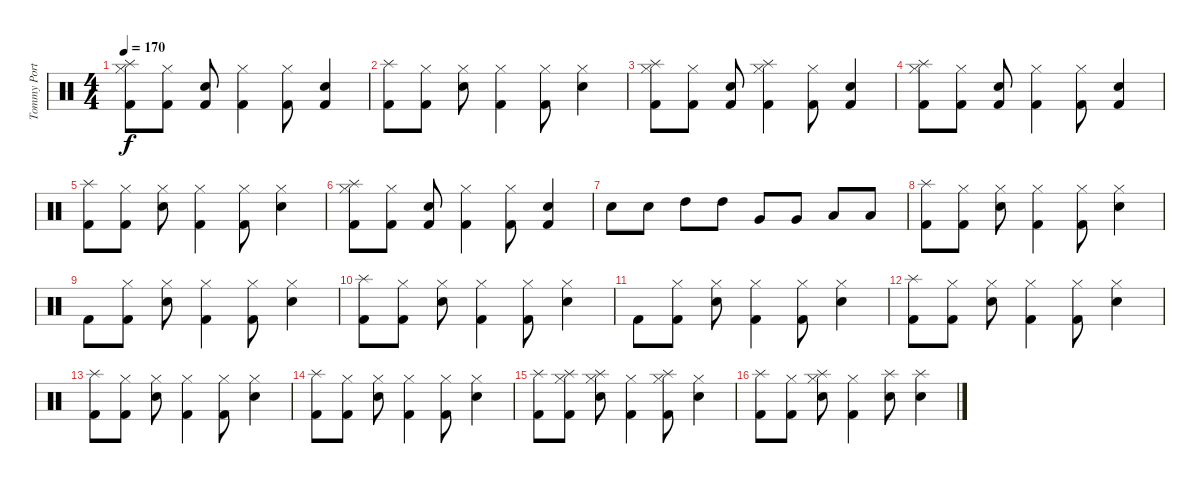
\track ("Tommy Portimo" "Tommy Port") {instrument percussion}
\staff {score}
\articulation defaults
\ts (4 4)
\tempo 170
\clef neutral
\ks c
("Splash (hit)" "Kick (hit) 2" "Hi-Hat (closed)").8{dy f} ("Kick (hit) 2" "Hi-Hat (closed)").8 ("Electric Snare (hit)" "Kick (hit) 2").8 ("Kick (hit) 2" "Hi-Hat (closed)").4 ("Kick (hit) 2" "Hi-Hat (closed)").8 ("Electric Snare (hit)" "Kick (hit) 2").4 |
("Splash (hit)" "Kick (hit) 2").8 ("Kick (hit) 2" "Hi-Hat (closed)").8 ("Electric Snare (hit)" "Hi-Hat (closed)").8 ("Kick (hit) 2" "Hi-Hat (closed)").4 ("Kick (hit) 2" "Hi-Hat (closed)").8 ("Electric Snare (hit)" "Hi-Hat (closed)").4 |
("Splash (hit)" "Kick (hit) 2" "Hi-Hat (closed)").8 ("Kick (hit) 2" "Hi-Hat (closed)").8 ("Electric Snare (hit)" "Kick (hit) 2").8 ("Splash (hit)" "Kick (hit) 2" "Hi-Hat (closed)").4 ("Kick (hit) 2" "Hi-Hat (closed)").8 ("Electric Snare (hit)" "Kick (hit) 2").4 |
("Splash (hit)" "Kick (hit) 2" "Hi-Hat (closed)").8 ("Kick (hit) 2" "Hi-Hat (closed)").8 ("Electric Snare (hit)" "Kick (hit) 2").8 ("Kick (hit) 2" "Hi-Hat (closed)").4 ("Kick (hit) 2" "Hi-Hat (closed)").8 ("Electric Snare (hit)" "Kick (hit) 2").4 |
("Splash (hit)" "Kick (hit) 2").8 ("Kick (hit) 2" "Hi-Hat (closed)").8 ("Electric Snare (hit)" "Hi-Hat (closed)").8 ("Kick (hit) 2" "Hi-Hat (closed)").4 ("Kick (hit) 2" "Hi-Hat (closed)").8 ("Electric Snare (hit)" "Hi-Hat (closed)").4 |
("Splash (hit)" "Kick (hit) 2" "Hi-Hat (closed)").8 ("Kick (hit) 2" "Hi-Hat (closed)").8 ("Electric Snare (hit)" "Kick (hit) 2").8 ("Kick (hit) 2" "Hi-Hat (closed)").4 ("Kick (hit) 2" "Hi-Hat (closed)").8 ("Electric Snare (hit)" "Kick (hit) 2").4 |
"Snare (hit) 2".8 "Snare (hit) 2".8 "High Tom (hit)".8 "High Tom (hit)".8 "Very Low Tom (hit)".8 "Very Low Tom (hit)".8 "Low Floor Tom (hit)".8 "Low Floor Tom (hit)".8 |
("Splash (hit)" "Kick (hit) 2").8 ("Kick (hit) 2" "Hi-Hat (closed)").8 ("Electric Snare (hit)" "Hi-Hat (closed)").8 ("Kick (hit) 2" "Hi-Hat (closed)").4 ("Kick (hit) 2" "Hi-Hat (closed)").8 ("Electric Snare (hit)" "Hi-Hat (closed)").4 |
"Kick (hit) 2".8 ("Kick (hit) 2" "Hi-Hat (closed)").8 ("Electric Snare (hit)" "Hi-Hat (closed)").8 ("Kick (hit) 2" "Hi-Hat (closed)").4 ("Kick (hit) 2" "Hi-Hat (closed)").8 ("Electric Snare (hit)" "Hi-Hat (closed)").4 |
("Splash (hit)" "Kick (hit) 2").8 ("Kick (hit) 2" "Hi-Hat (closed)").8 ("Electric Snare (hit)" "Hi-Hat (closed)").8 ("Kick (hit) 2" "Hi-Hat (closed)").4 ("Kick (hit) 2" "Hi-Hat (closed)").8 ("Electric Snare (hit)" "Hi-Hat (closed)").4 |
"Kick (hit) 2".8 ("Kick (hit) 2" "Hi-Hat (closed)").8 ("Electric Snare (hit)" "Hi-Hat (closed)").8 ("Kick (hit) 2" "Hi-Hat (closed)").4 ("Kick (hit) 2" "Hi-Hat (closed)").8 ("Electric Snare (hit)" "Hi-Hat (closed)").4 |
("Splash (hit)" "Kick (hit) 2").8 ("Kick (hit) 2" "Hi-Hat (closed)").8 ("Electric Snare (hit)" "Hi-Hat (closed)").8 ("Kick (hit) 2" "Hi-Hat (closed)").4 ("Kick (hit) 2" "Hi-Hat (closed)").8 ("Electric Snare (hit)" "Hi-Hat (closed)").4 |
("Splash (hit)" "Kick (hit) 2").8 ("Kick (hit) 2" "Hi-Hat (closed)").8 ("Electric Snare (hit)" "Hi-Hat (closed)").8 ("Kick (hit) 2" "Hi-Hat (closed)").4 ("Kick (hit) 2" "Hi-Hat (closed)").8 ("Electric Snare (hit)" "Hi-Hat (closed)").4 |
("Splash (hit)" "Kick (hit) 2").8 ("Kick (hit) 2" "Hi-Hat (closed)").8 ("Electric Snare (hit)" "Hi-Hat (closed)").8 ("Kick (hit) 2" "Hi-Hat (closed)").4 ("Kick (hit) 2" "Hi-Hat (closed)").8 ("Electric Snare (hit)" "Hi-Hat (closed)").4 |
("Splash (hit)" "Kick (hit) 2").8 ("Splash (hit)" "Kick (hit) 2" "Hi-Hat (closed)").8 ("Splash (hit)" "Electric Snare (hit)" "Hi-Hat (closed)").8 ("Kick (hit) 2" "Hi-Hat (closed)").4 ("Splash (hit)" "Kick (hit) 2" "Hi-Hat (closed)").8 ("Electric Snare (hit)" "Hi-Hat (closed)").4 |
("Splash (hit)" "Kick (hit) 2").8 ("Kick (hit) 2" "Hi-Hat (closed)").8 ("Splash (hit)" "Electric Snare (hit)" "Hi-Hat (closed)").8 ("Kick (hit) 2" "Hi-Hat (closed)").4 ("Splash (hit)" "Electric Snare (hit)").8 ("Splash (hit)" "Electric Snare (hit)").4
